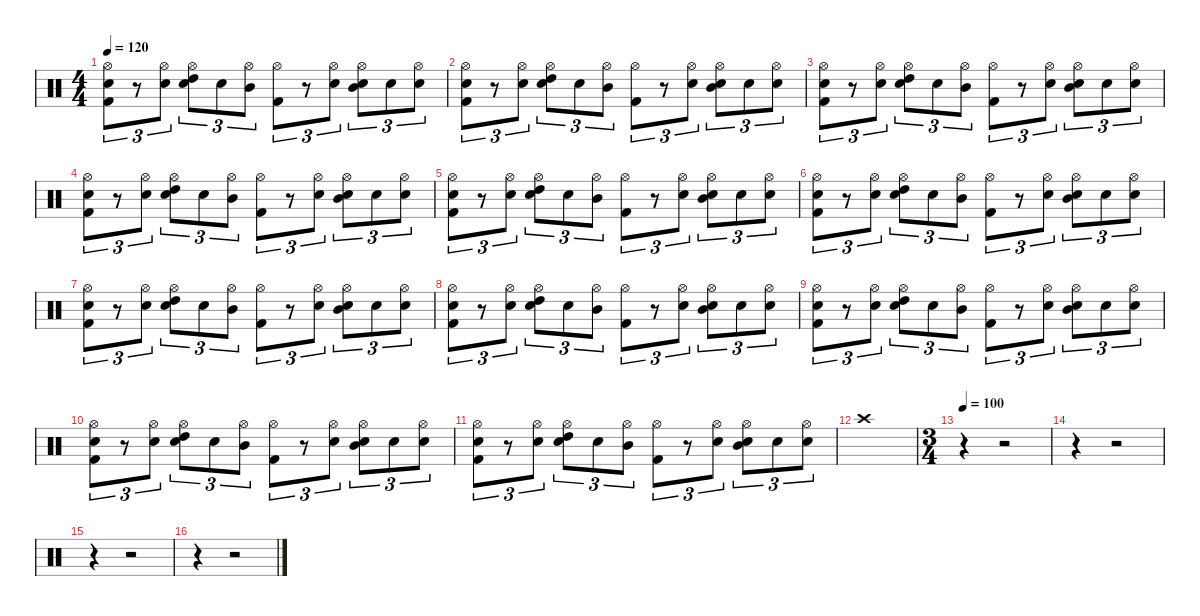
\defaultSystemsLayout 4
\hideDynamics
\bracketExtendMode nobrackets
\singleTrackTrackNamePolicy hidden
\multiTrackTrackNamePolicy hidden
\firstSystemTrackNameMode fullname
\firstSystemTrackNameOrientation horizontal
\otherSystemsTrackNameOrientation horizontal
\track ("Drums" "drm.") {instrument percussion}
\staff {score}
\articulation defaults
\ts (4 4)
\tempo 120
\clef neutral
\ks c
("Hi-Hat (open)" "Snare (hit) 2" "Kick (hit) 2").8{tu (3 2) dy f beam Down} r.8{tu (3 2) beam Down} ("Hi-Hat (open)" "Snare (hit) 2").8{tu (3 2) beam Down} ("Hi-Hat (open)" "High Tom (hit)" "Snare (hit) 2").8{tu (3 2) beam Down} "Snare (hit) 2".8{tu (3 2) dy mp beam Down} ("Hi-Hat (open)" "Mid Tom (hit)").8{tu (3 2) dy f beam Down} ("Hi-Hat (open)" "Kick (hit) 2").8{tu (3 2) beam Down} r.8{tu (3 2) beam Down} ("Hi-Hat (open)" "Snare (hit) 2").8{tu (3 2) beam Down} ("Hi-Hat (open)" "Mid Tom (hit)" "Snare (hit) 2").8{tu (3 2) beam Down} "Snare (hit) 2".8{tu (3 2) dy mp beam Down} ("Hi-Hat (open)" "Snare (hit) 2").8{tu (3 2) dy f beam Down} |
("Hi-Hat (open)" "Snare (hit) 2" "Kick (hit) 2").8{tu (3 2) beam Down} r.8{tu (3 2) beam Down} ("Hi-Hat (open)" "Snare (hit) 2").8{tu (3 2) beam Down} ("Hi-Hat (open)" "High Tom (hit)" "Snare (hit) 2").8{tu (3 2) beam Down} "Snare (hit) 2".8{tu (3 2) dy mp beam Down} ("Hi-Hat (open)" "Mid Tom (hit)").8{tu (3 2) dy f beam Down} ("Hi-Hat (open)" "Kick (hit) 2").8{tu (3 2) beam Down} r.8{tu (3 2) beam Down} ("Hi-Hat (open)" "Snare (hit) 2").8{tu (3 2) beam Down} ("Hi-Hat (open)" "Mid Tom (hit)" "Snare (hit) 2").8{tu (3 2) beam Down} "Snare (hit) 2".8{tu (3 2) dy mp beam Down} ("Hi-Hat (open)" "Snare (hit) 2").8{tu (3 2) dy f beam Down} |
("Hi-Hat (open)" "Snare (hit) 2" "Kick (hit) 2").8{tu (3 2) beam Down} r.8{tu (3 2) beam Down} ("Hi-Hat (open)" "Snare (hit) 2").8{tu (3 2) beam Down} ("Hi-Hat (open)" "High Tom (hit)" "Snare (hit) 2").8{tu (3 2) beam Down} "Snare (hit) 2".8{tu (3 2) dy mp beam Down} ("Hi-Hat (open)" "Mid Tom (hit)").8{tu (3 2) dy f beam Down} ("Hi-Hat (open)" "Kick (hit) 2").8{tu (3 2) beam Down} r.8{tu (3 2) beam Down} ("Hi-Hat (open)" "Snare (hit) 2").8{tu (3 2) beam Down} ("Hi-Hat (open)" "Mid Tom (hit)" "Snare (hit) 2").8{tu (3 2) beam Down} "Snare (hit) 2".8{tu (3 2) dy mp beam Down} ("Hi-Hat (open)" "Snare (hit) 2").8{tu (3 2) dy f beam Down} |
("Hi-Hat (open)" "Snare (hit) 2" "Kick (hit) 2").8{tu (3 2) beam Down} r.8{tu (3 2) beam Down} ("Hi-Hat (open)" "Snare (hit) 2").8{tu (3 2) beam Down} ("Hi-Hat (open)" "High Tom (hit)" "Snare (hit) 2").8{tu (3 2) beam Down} "Snare (hit) 2".8{tu (3 2) dy mp beam Down} ("Hi-Hat (open)" "Mid Tom (hit)").8{tu (3 2) dy f beam Down} ("Hi-Hat (open)" "Kick (hit) 2").8{tu (3 2) beam Down} r.8{tu (3 2) beam Down} ("Hi-Hat (open)" "Snare (hit) 2").8{tu (3 2) beam Down} ("Hi-Hat (open)" "Mid Tom (hit)" "Snare (hit) 2").8{tu (3 2) beam Down} "Snare (hit) 2".8{tu (3 2) dy mp beam Down} ("Hi-Hat (open)" "Snare (hit) 2").8{tu (3 2) dy f beam Down} |
("Hi-Hat (open)" "Snare (hit) 2" "Kick (hit) 2").8{tu (3 2) beam Down} r.8{tu (3 2) beam Down} ("Hi-Hat (open)" "Snare (hit) 2").8{tu (3 2) beam Down} ("Hi-Hat (open)" "High Tom (hit)" "Snare (hit) 2").8{tu (3 2) beam Down} "Snare (hit) 2".8{tu (3 2) dy mp beam Down} ("Hi-Hat (open)" "Mid Tom (hit)").8{tu (3 2) dy f beam Down} ("Hi-Hat (open)" "Kick (hit) 2").8{tu (3 2) beam Down} r.8{tu (3 2) beam Down} ("Hi-Hat (open)" "Snare (hit) 2").8{tu (3 2) beam Down} ("Hi-Hat (open)" "Mid Tom (hit)" "Snare (hit) 2").8{tu (3 2) beam Down} "Snare (hit) 2".8{tu (3 2) dy mp beam Down} ("Hi-Hat (open)" "Snare (hit) 2").8{tu (3 2) dy f beam Down} |
("Hi-Hat (open)" "Snare (hit) 2" "Kick (hit) 2").8{tu (3 2) beam Down} r.8{tu (3 2) beam Down} ("Hi-Hat (open)" "Snare (hit) 2").8{tu (3 2) beam Down} ("Hi-Hat (open)" "High Tom (hit)" "Snare (hit) 2").8{tu (3 2) beam Down} "Snare (hit) 2".8{tu (3 2) dy mp beam Down} ("Hi-Hat (open)" "Mid Tom (hit)").8{tu (3 2) dy f beam Down} ("Hi-Hat (open)" "Kick (hit) 2").8{tu (3 2) beam Down} r.8{tu (3 2) beam Down} ("Hi-Hat (open)" "Snare (hit) 2").8{tu (3 2) beam Down} ("Hi-Hat (open)" "Mid Tom (hit)" "Snare (hit) 2").8{tu (3 2) beam Down} "Snare (hit) 2".8{tu (3 2) dy mp beam Down} ("Hi-Hat (open)" "Snare (hit) 2").8{tu (3 2) dy f beam Down} |
("Hi-Hat (open)" "Snare (hit) 2" "Kick (hit) 2").8{tu (3 2) beam Down} r.8{tu (3 2) beam Down} ("Hi-Hat (open)" "Snare (hit) 2").8{tu (3 2) beam Down} ("Hi-Hat (open)" "High Tom (hit)" "Snare (hit) 2").8{tu (3 2) beam Down} "Snare (hit) 2".8{tu (3 2) dy mp beam Down} ("Hi-Hat (open)" "Mid Tom (hit)").8{tu (3 2) dy f beam Down} ("Hi-Hat (open)" "Kick (hit) 2").8{tu (3 2) beam Down} r.8{tu (3 2) beam Down} ("Hi-Hat (open)" "Snare (hit) 2").8{tu (3 2) beam Down} ("Hi-Hat (open)" "Mid Tom (hit)" "Snare (hit) 2").8{tu (3 2) beam Down} "Snare (hit) 2".8{tu (3 2) dy mp beam Down} ("Hi-Hat (open)" "Snare (hit) 2").8{tu (3 2) dy f beam Down} |
("Hi-Hat (open)" "Snare (hit) 2" "Kick (hit) 2").8{tu (3 2) beam Down} r.8{tu (3 2) beam Down} ("Hi-Hat (open)" "Snare (hit) 2").8{tu (3 2) beam Down} ("Hi-Hat (open)" "High Tom (hit)" "Snare (hit) 2").8{tu (3 2) beam Down} "Snare (hit) 2".8{tu (3 2) dy mp beam Down} ("Hi-Hat (open)" "Mid Tom (hit)").8{tu (3 2) dy f beam Down} ("Hi-Hat (open)" "Kick (hit) 2").8{tu (3 2) beam Down} r.8{tu (3 2) beam Down} ("Hi-Hat (open)" "Snare (hit) 2").8{tu (3 2) beam Down} ("Hi-Hat (open)" "Mid Tom (hit)" "Snare (hit) 2").8{tu (3 2) beam Down} "Snare (hit) 2".8{tu (3 2) dy mp beam Down} ("Hi-Hat (open)" "Snare (hit) 2").8{tu (3 2) dy f beam Down} |
("Hi-Hat (open)" "Snare (hit) 2" "Kick (hit) 2").8{tu (3 2) beam Down} r.8{tu (3 2) beam Down} ("Hi-Hat (open)" "Snare (hit) 2").8{tu (3 2) beam Down} ("Hi-Hat (open)" "High Tom (hit)" "Snare (hit) 2").8{tu (3 2) beam Down} "Snare (hit) 2".8{tu (3 2) dy mp beam Down} ("Hi-Hat (open)" "Mid Tom (hit)").8{tu (3 2) dy f beam Down} ("Hi-Hat (open)" "Kick (hit) 2").8{tu (3 2) beam Down} r.8{tu (3 2) beam Down} ("Hi-Hat (open)" "Snare (hit) 2").8{tu (3 2) beam Down} ("Hi-Hat (open)" "Mid Tom (hit)" "Snare (hit) 2").8{tu (3 2) beam Down} "Snare (hit) 2".8{tu (3 2) dy mp beam Down} ("Hi-Hat (open)" "Snare (hit) 2").8{tu (3 2) dy f beam Down} |
("Hi-Hat (open)" "Snare (hit) 2" "Kick (hit) 2").8{tu (3 2) beam Down} r.8{tu (3 2) beam Down} ("Hi-Hat (open)" "Snare (hit) 2").8{tu (3 2) beam Down} ("Hi-Hat (open)" "High Tom (hit)" "Snare (hit) 2").8{tu (3 2) beam Down} "Snare (hit) 2".8{tu (3 2) dy mp beam Down} ("Hi-Hat (open)" "Mid Tom (hit)").8{tu (3 2) dy f beam Down} ("Hi-Hat (open)" "Kick (hit) 2").8{tu (3 2) beam Down} r.8{tu (3 2) beam Down} ("Hi-Hat (open)" "Snare (hit) 2").8{tu (3 2) beam Down} ("Hi-Hat (open)" "Mid Tom (hit)" "Snare (hit) 2").8{tu (3 2) beam Down} "Snare (hit) 2".8{tu (3 2) dy mp beam Down} ("Hi-Hat (open)" "Snare (hit) 2").8{tu (3 2) dy f beam Down} |
("Hi-Hat (open)" "Snare (hit) 2" "Kick (hit) 2").8{tu (3 2) beam Down} r.8{tu (3 2) beam Down} ("Hi-Hat (open)" "Snare (hit) 2").8{tu (3 2) beam Down} ("Hi-Hat (open)" "High Tom (hit)" "Snare (hit) 2").8{tu (3 2) beam Down} "Snare (hit) 2".8{tu (3 2) dy mp beam Down} ("Hi-Hat (open)" "Mid Tom (hit)").8{tu (3 2) dy f beam Down} ("Hi-Hat (open)" "Kick (hit) 2").8{tu (3 2) beam Down} r.8{tu (3 2) beam Down} ("Hi-Hat (open)" "Snare (hit) 2").8{tu (3 2) beam Down} ("Hi-Hat (open)" "Mid Tom (hit)" "Snare (hit) 2").8{tu (3 2) beam Down} "Snare (hit) 2".8{tu (3 2) dy mp beam Down} ("Hi-Hat (open)" "Snare (hit) 2").8{tu (3 2) dy f beam Down} |
"Crash high (hit)".1{beam Down} |
\ts (3 4)
\tempo 100
r.4{beam Down} r.2{beam Down} |
r.4{beam Down} r.2{beam Down} |
r.4{beam Down} r.2{beam Down} |
r.4{beam Down} r.2{beam Down}
